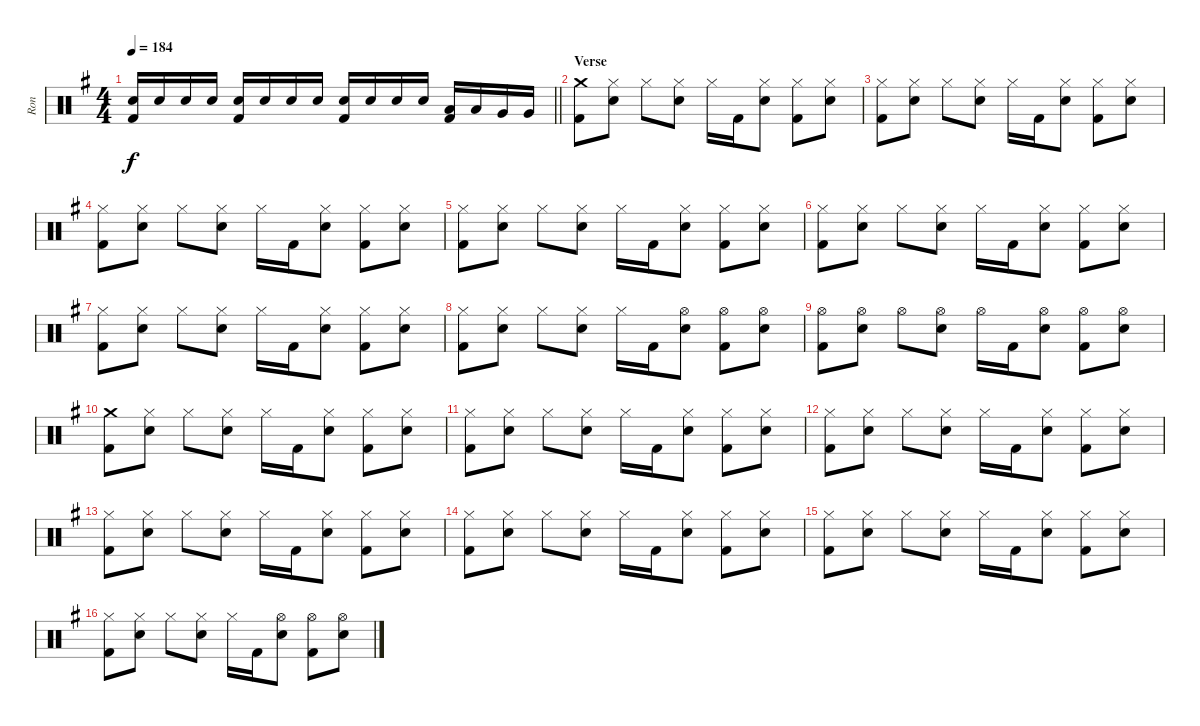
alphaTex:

\track ("Ron" "Ron") {instrument percussion}
\staff {score}
\articulation defaults
\ts (4 4)
\tempo 184
\clef neutral
\barLineRight lightlight
\ks eminor
("Electric Snare (hit)" "Kick (hit) 2").16{dy f} "Electric Snare (hit)".16 "Electric Snare (hit)".16 "Electric Snare (hit)".16 ("Electric Snare (hit)" "Kick (hit) 2").16 "Electric Snare (hit)".16 "Electric Snare (hit)".16 "Electric Snare (hit)".16 ("Electric Snare (hit)" "Kick (hit) 2").16 "Electric Snare (hit)".16 "Electric Snare (hit)".16 "Electric Snare (hit)".16 ("Low Tom (hit)" "Kick (hit) 2").16 "Low Tom (hit)".16 "Very Low Tom (hit)".16 "Very Low Tom (hit)".16 |
\section ("" "Verse")
("Crash medium (hit)" "Kick (hit) 2").8 ("Hi-Hat (closed)" "Electric Snare (hit)").8 "Hi-Hat (closed)".8 ("Hi-Hat (closed)" "Electric Snare (hit)").8 "Hi-Hat (closed)".16 "Kick (hit) 2".16 ("Hi-Hat (closed)" "Electric Snare (hit)").8 ("Hi-Hat (closed)" "Kick (hit) 2").8 ("Hi-Hat (closed)" "Electric Snare (hit)").8 |
("Hi-Hat (closed)" "Kick (hit) 2").8 ("Hi-Hat (closed)" "Electric Snare (hit)").8 "Hi-Hat (closed)".8 ("Hi-Hat (closed)" "Electric Snare (hit)").8 "Hi-Hat (closed)".16 "Kick (hit) 2".16 ("Hi-Hat (closed)" "Electric Snare (hit)").8 ("Hi-Hat (closed)" "Kick (hit) 2").8 ("Hi-Hat (closed)" "Electric Snare (hit)").8 |
("Hi-Hat (closed)" "Kick (hit) 2").8 ("Hi-Hat (closed)" "Electric Snare (hit)").8 "Hi-Hat (closed)".8 ("Hi-Hat (closed)" "Electric Snare (hit)").8 "Hi-Hat (closed)".16 "Kick (hit) 2".16 ("Hi-Hat (closed)" "Electric Snare (hit)").8 ("Hi-Hat (closed)" "Kick (hit) 2").8 ("Hi-Hat (closed)" "Electric Snare (hit)").8 |
("Hi-Hat (closed)" "Kick (hit) 2").8 ("Hi-Hat (closed)" "Electric Snare (hit)").8 "Hi-Hat (closed)".8 ("Hi-Hat (closed)" "Electric Snare (hit)").8 "Hi-Hat (closed)".16 "Kick (hit) 2".16 ("Hi-Hat (closed)" "Electric Snare (hit)").8 ("Hi-Hat (closed)" "Kick (hit) 2").8 ("Hi-Hat (closed)" "Electric Snare (hit)").8 |
("Hi-Hat (closed)" "Kick (hit) 2").8 ("Hi-Hat (closed)" "Electric Snare (hit)").8 "Hi-Hat (closed)".8 ("Hi-Hat (closed)" "Electric Snare (hit)").8 "Hi-Hat (closed)".16 "Kick (hit) 2".16 ("Hi-Hat (closed)" "Electric Snare (hit)").8 ("Hi-Hat (closed)" "Kick (hit) 2").8 ("Hi-Hat (closed)" "Electric Snare (hit)").8 |
("Hi-Hat (closed)" "Kick (hit) 2").8 ("Hi-Hat (closed)" "Electric Snare (hit)").8 "Hi-Hat (closed)".8 ("Hi-Hat (closed)" "Electric Snare (hit)").8 "Hi-Hat (closed)".16 "Kick (hit) 2".16 ("Hi-Hat (closed)" "Electric Snare (hit)").8 ("Hi-Hat (closed)" "Kick (hit) 2").8 ("Hi-Hat (closed)" "Electric Snare (hit)").8 |
("Hi-Hat (closed)" "Kick (hit) 2").8 ("Hi-Hat (closed)" "Electric Snare (hit)").8 "Hi-Hat (closed)".8 ("Hi-Hat (closed)" "Electric Snare (hit)").8 "Hi-Hat (closed)".16 "Kick (hit) 2".16 ("Hi-Hat (open)" "Electric Snare (hit)").8 ("Hi-Hat (open)" "Kick (hit) 2").8 ("Hi-Hat (open)" "Electric Snare (hit)").8 |
("Hi-Hat (open)" "Kick (hit) 2").8 ("Hi-Hat (open)" "Electric Snare (hit)").8 "Hi-Hat (open)".8 ("Hi-Hat (open)" "Electric Snare (hit)").8 "Hi-Hat (open)".16 "Kick (hit) 2".16 ("Hi-Hat (open)" "Electric Snare (hit)").8 ("Hi-Hat (open)" "Kick (hit) 2").8 ("Hi-Hat (open)" "Electric Snare (hit)").8 |
("Crash medium (hit)" "Kick (hit) 2").8 ("Hi-Hat (closed)" "Electric Snare (hit)").8 "Hi-Hat (closed)".8 ("Hi-Hat (closed)" "Electric Snare (hit)").8 "Hi-Hat (closed)".16 "Kick (hit) 2".16 ("Hi-Hat (closed)" "Electric Snare (hit)").8 ("Hi-Hat (closed)" "Kick (hit) 2").8 ("Hi-Hat (closed)" "Electric Snare (hit)").8 |
("Hi-Hat (closed)" "Kick (hit) 2").8 ("Hi-Hat (closed)" "Electric Snare (hit)").8 "Hi-Hat (closed)".8 ("Hi-Hat (closed)" "Electric Snare (hit)").8 "Hi-Hat (closed)".16 "Kick (hit) 2".16 ("Hi-Hat (closed)" "Electric Snare (hit)").8 ("Hi-Hat (closed)" "Kick (hit) 2").8 ("Hi-Hat (closed)" "Electric Snare (hit)").8 |
("Hi-Hat (closed)" "Kick (hit) 2").8 ("Hi-Hat (closed)" "Electric Snare (hit)").8 "Hi-Hat (closed)".8 ("Hi-Hat (closed)" "Electric Snare (hit)").8 "Hi-Hat (closed)".16 "Kick (hit) 2".16 ("Hi-Hat (closed)" "Electric Snare (hit)").8 ("Hi-Hat (closed)" "Kick (hit) 2").8 ("Hi-Hat (closed)" "Electric Snare (hit)").8 |
("Hi-Hat (closed)" "Kick (hit) 2").8 ("Hi-Hat (closed)" "Electric Snare (hit)").8 "Hi-Hat (closed)".8 ("Hi-Hat (closed)" "Electric Snare (hit)").8 "Hi-Hat (closed)".16 "Kick (hit) 2".16 ("Hi-Hat (closed)" "Electric Snare (hit)").8 ("Hi-Hat (closed)" "Kick (hit) 2").8 ("Hi-Hat (closed)" "Electric Snare (hit)").8 |
("Hi-Hat (closed)" "Kick (hit) 2").8 ("Hi-Hat (closed)" "Electric Snare (hit)").8 "Hi-Hat (closed)".8 ("Hi-Hat (closed)" "Electric Snare (hit)").8 "Hi-Hat (closed)".16 "Kick (hit) 2".16 ("Hi-Hat (closed)" "Electric Snare (hit)").8 ("Hi-Hat (closed)" "Kick (hit) 2").8 ("Hi-Hat (closed)" "Electric Snare (hit)").8 |
("Hi-Hat (closed)" "Kick (hit) 2").8 ("Hi-Hat (closed)" "Electric Snare (hit)").8 "Hi-Hat (closed)".8 ("Hi-Hat (closed)" "Electric Snare (hit)").8 "Hi-Hat (closed)".16 "Kick (hit) 2".16 ("Hi-Hat (closed)" "Electric Snare (hit)").8 ("Hi-Hat (closed)" "Kick (hit) 2").8 ("Hi-Hat (closed)" "Electric Snare (hit)").8 |
("Hi-Hat (closed)" "Kick (hit) 2").8 ("Hi-Hat (closed)" "Electric Snare (hit)").8 "Hi-Hat (closed)".8 ("Hi-Hat (closed)" "Electric Snare (hit)").8 "Hi-Hat (closed)".16 "Kick (hit) 2".16 ("Hi-Hat (open)" "Electric Snare (hit)").8 ("Hi-Hat (open)" "Kick (hit) 2").8 ("Hi-Hat (open)" "Electric Snare (hit)").8
